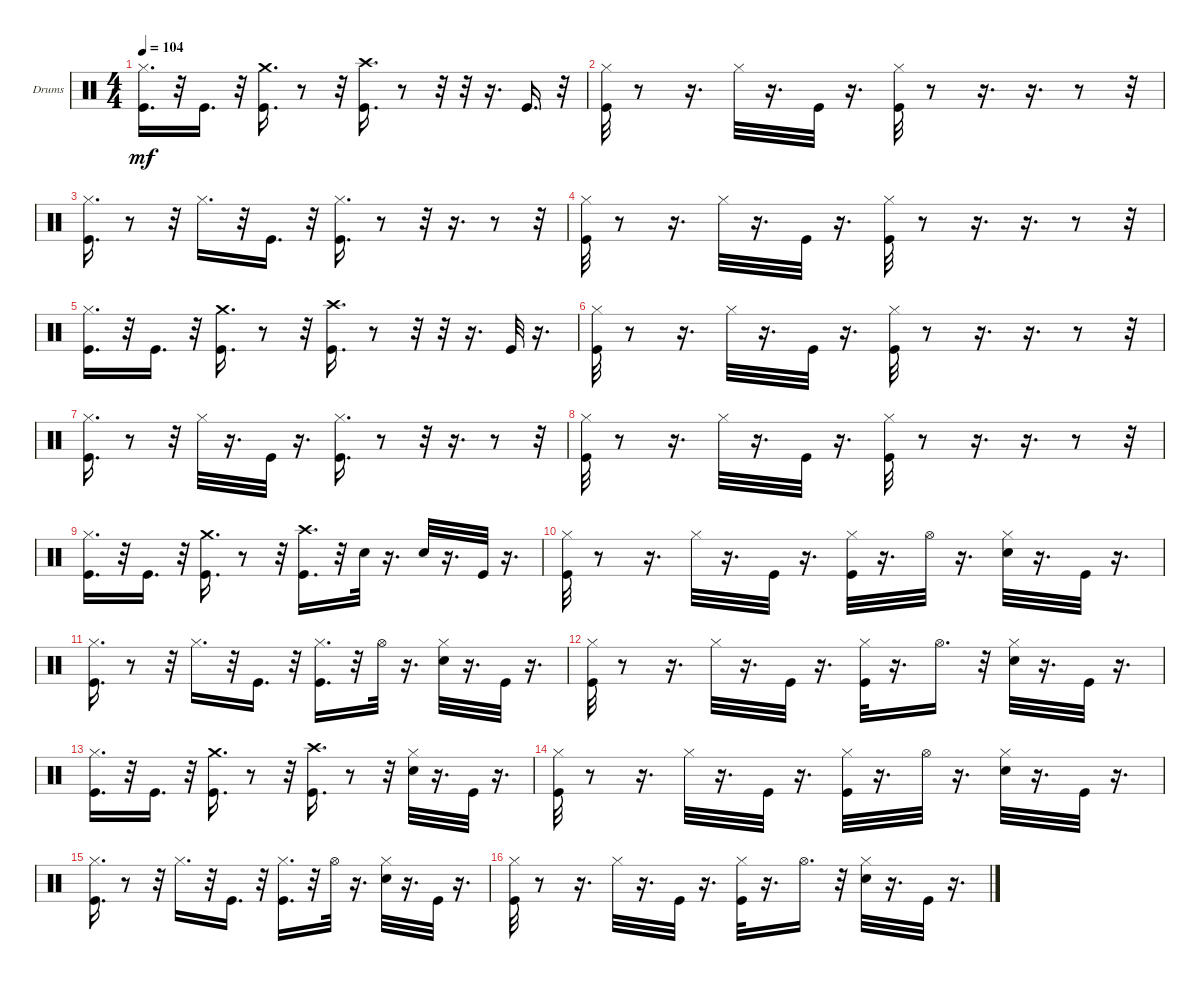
\bracketExtendMode groupsimilarinstruments
\firstSystemTrackNameOrientation horizontal
\otherSystemsTrackNameOrientation horizontal
\track ("" "Drums") {instrument percussion}
\staff {score}
\articulation defaults
\ts (4 4)
\tempo 104
\clef neutral
\ks c
("Hi-Hat (closed)" "Kick (hit)").16{d dy mf} r.32 "Kick (hit)".16{d} r.32 ("Crash medium (hit)" "Kick (hit)").16{d} r.8 r.32 ("Crash high (hit)" "Kick (hit)").16{d} r.8 r.32 r.32 r.16{d} "Kick (hit)".16{d} r.32 |
("Hi-Hat (closed)" "Kick (hit)").32 r.8 r.16{d} "Hi-Hat (closed)".32 r.16{d} "Kick (hit)".32 r.16{d} ("Hi-Hat (closed)" "Kick (hit)").32 r.8 r.16{d} r.16{d} r.8 r.32 |
("Hi-Hat (closed)" "Kick (hit)").16{d} r.8 r.32 "Hi-Hat (closed)".16{d} r.32 "Kick (hit)".16{d} r.32 ("Hi-Hat (closed)" "Kick (hit)").16{d} r.8 r.32 r.16{d} r.8 r.32 |
("Hi-Hat (closed)" "Kick (hit)").32 r.8 r.16{d} "Hi-Hat (closed)".32 r.16{d} "Kick (hit)".32 r.16{d} ("Hi-Hat (closed)" "Kick (hit)").32 r.8 r.16{d} r.16{d} r.8 r.32 |
("Hi-Hat (closed)" "Kick (hit)").16{d} r.32 "Kick (hit)".16{d} r.32 ("Crash medium (hit)" "Kick (hit)").16{d} r.8 r.32 ("Crash high (hit)" "Kick (hit)").16{d} r.8 r.32 r.32 r.16{d} "Kick (hit)".32 r.16{d} |
("Hi-Hat (closed)" "Kick (hit)").32 r.8 r.16{d} "Hi-Hat (closed)".32 r.16{d} "Kick (hit)".32 r.16{d} ("Hi-Hat (closed)" "Kick (hit)").32 r.8 r.16{d} r.16{d} r.8 r.32 |
("Hi-Hat (closed)" "Kick (hit)").16{d} r.8 r.32 "Hi-Hat (closed)".32 r.16{d} "Kick (hit)".32 r.16{d} ("Hi-Hat (closed)" "Kick (hit)").16{d} r.8 r.32 r.16{d} r.8 r.32 |
("Hi-Hat (closed)" "Kick (hit)").32 r.8 r.16{d} "Hi-Hat (closed)".32 r.16{d} "Kick (hit)".32 r.16{d} ("Hi-Hat (closed)" "Kick (hit)").32 r.8 r.16{d} r.16{d} r.8 r.32 |
("Hi-Hat (closed)" "Kick (hit)").16{d} r.32 "Kick (hit)".16{d} r.32 ("Crash medium (hit)" "Kick (hit)").16{d} r.8 r.32 ("Crash high (hit)" "Kick (hit)").16{d} r.32 "Snare (hit) 2".32 r.16{d} "Snare (hit) 2".32 r.16{d} "Kick (hit)".32 r.16{d} |
("Hi-Hat (closed)" "Kick (hit)").32 r.8 r.16{d} "Hi-Hat (closed)".32 r.16{d} "Kick (hit)".32 r.16{d} ("Hi-Hat (closed)" "Kick (hit)").32 r.16{d} "Hi-Hat (open)".32 r.16{d} ("Hi-Hat (closed)" "Snare (hit) 2").32 r.16{d} "Kick (hit)".32 r.16{d} |
("Hi-Hat (closed)" "Kick (hit)").16{d} r.8 r.32 "Hi-Hat (closed)".16{d} r.32 "Kick (hit)".16{d} r.32 ("Hi-Hat (closed)" "Kick (hit)").16{d} r.32 "Hi-Hat (open)".32 r.16{d} ("Hi-Hat (closed)" "Snare (hit) 2").32 r.16{d} "Kick (hit)".32 r.16{d} |
("Hi-Hat (closed)" "Kick (hit)").32 r.8 r.16{d} "Hi-Hat (closed)".32 r.16{d} "Kick (hit)".32 r.16{d} ("Hi-Hat (closed)" "Kick (hit)").32 r.16{d} "Hi-Hat (open)".16{d} r.32 ("Hi-Hat (closed)" "Snare (hit) 2").32 r.16{d} "Kick (hit)".32 r.16{d} |
("Hi-Hat (closed)" "Kick (hit)").16{d} r.32 "Kick (hit)".16{d} r.32 ("Crash medium (hit)" "Kick (hit)").16{d} r.8 r.32 ("Crash high (hit)" "Kick (hit)").16{d} r.8 r.32 ("Hi-Hat (closed)" "Snare (hit) 2").32 r.16{d} "Kick (hit)".32 r.16{d} |
("Hi-Hat (closed)" "Kick (hit)").32 r.8 r.16{d} "Hi-Hat (closed)".32 r.16{d} "Kick (hit)".32 r.16{d} ("Hi-Hat (closed)" "Kick (hit)").32 r.16{d} "Hi-Hat (open)".32 r.16{d} ("Hi-Hat (closed)" "Snare (hit) 2").32 r.16{d} "Kick (hit)".32 r.16{d} |
("Hi-Hat (closed)" "Kick (hit)").16{d} r.8 r.32 "Hi-Hat (closed)".16{d} r.32 "Kick (hit)".16{d} r.32 ("Hi-Hat (closed)" "Kick (hit)").16{d} r.32 "Hi-Hat (open)".32 r.16{d} ("Hi-Hat (closed)" "Snare (hit) 2").32 r.16{d} "Kick (hit)".32 r.16{d} |
("Hi-Hat (closed)" "Kick (hit)").32 r.8 r.16{d} "Hi-Hat (closed)".32 r.16{d} "Kick (hit)".32 r.16{d} ("Hi-Hat (closed)" "Kick (hit)").32 r.16{d} "Hi-Hat (open)".16{d} r.32 ("Hi-Hat (closed)" "Snare (hit) 2").32 r.16{d} "Kick (hit)".32 r.16{d}
